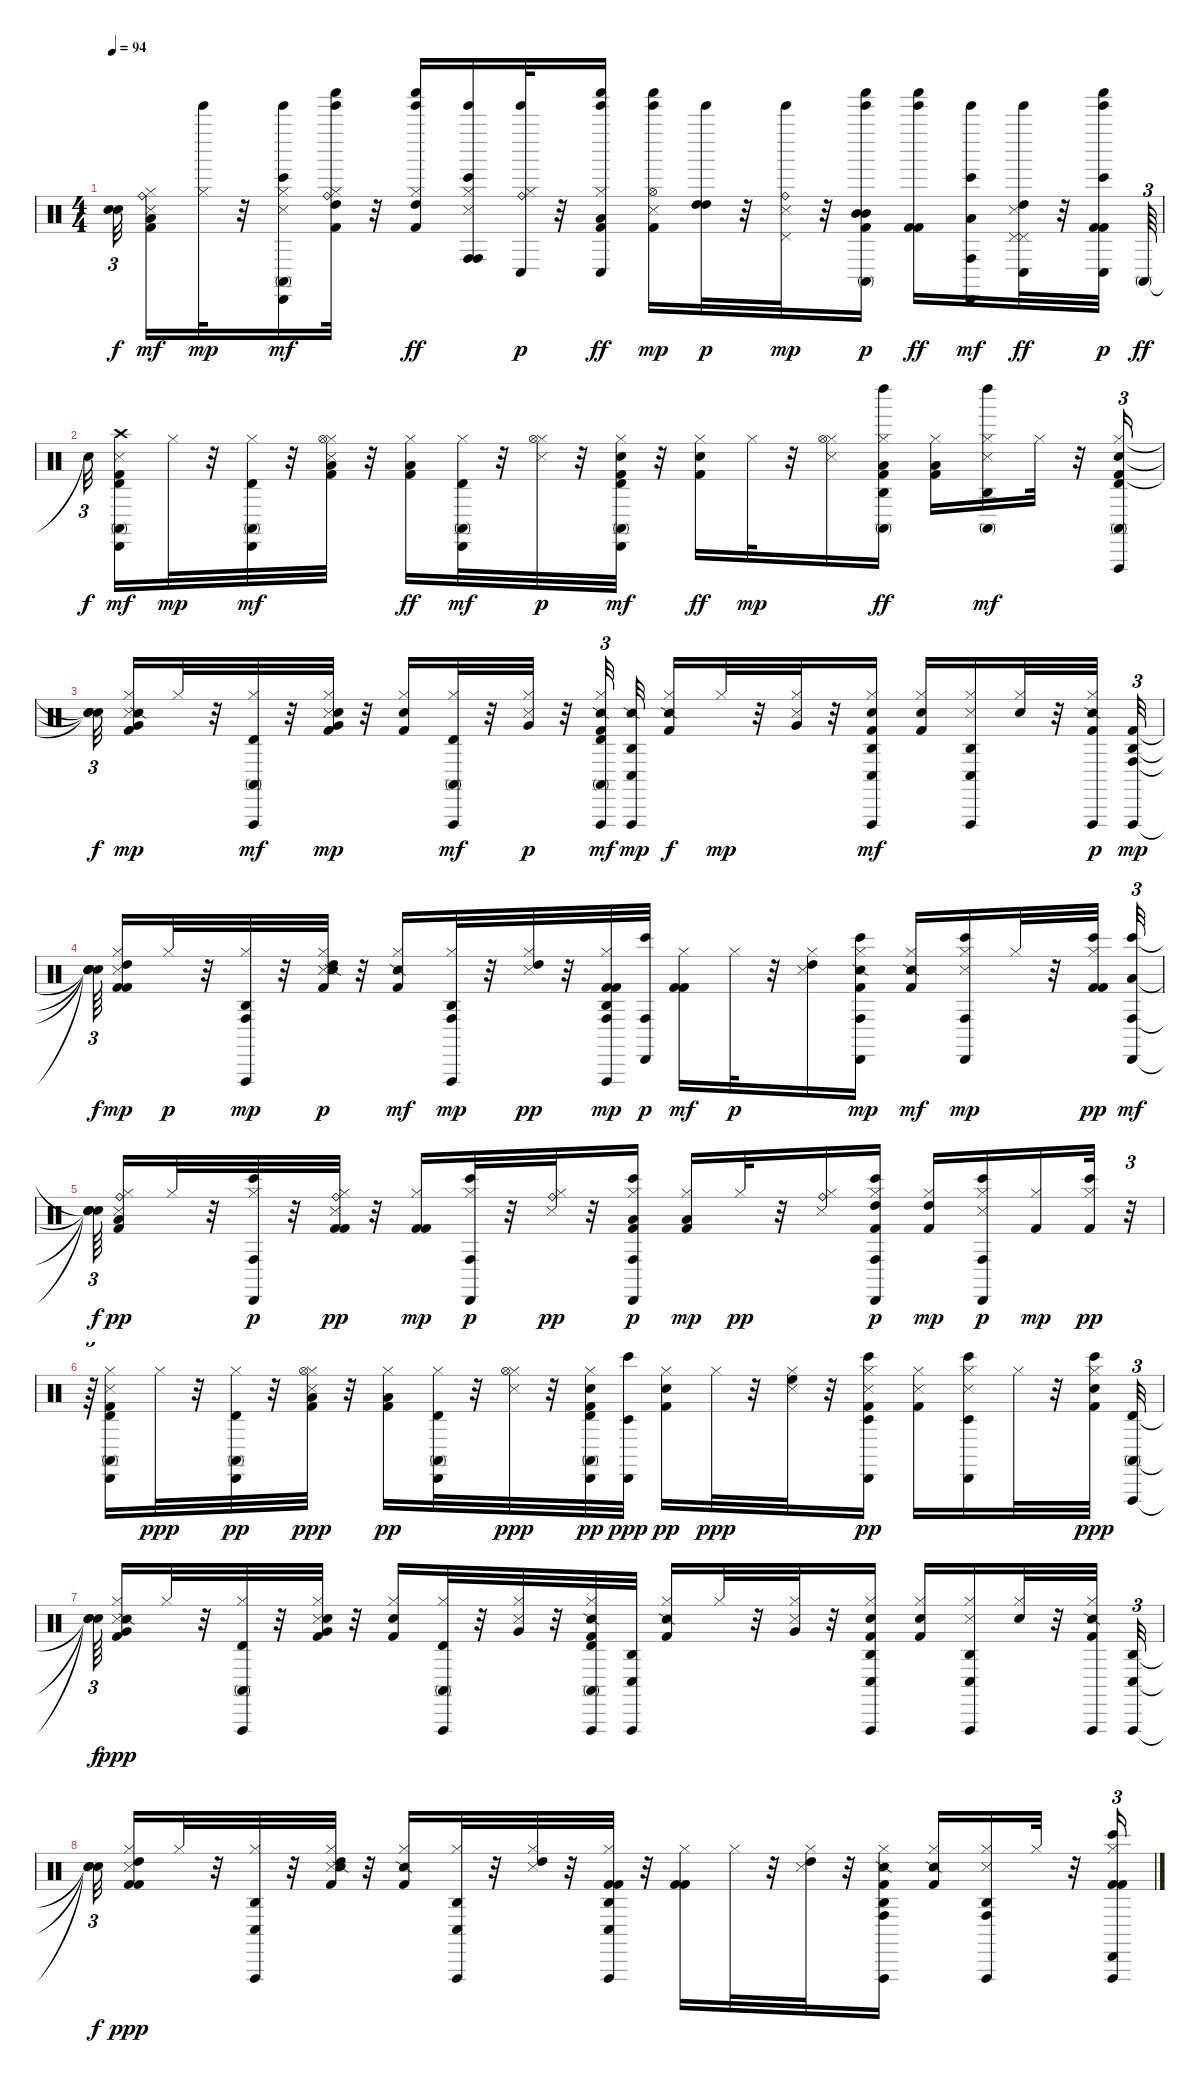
\track "" {instrument percussion}
\staff {score}
\articulation defaults
\ts (4 4)
\tempo 94
\clef neutral
\ks c
("Snare (hit)"{t} "Snare (hit)"{t}).32{tu (3 2) dy f beam splitsecondary} ("Kick (hit) 2" "Snare (side stick) 3" "Hi-Hat (closed)" "Low Floor Tom (hit)" "Ride (bell)").16{dy mf} ("Tinkle Bell (hit)" "Hi-Hat (closed)").32{dy mp} r.32 ("Tinkle Bell (hit)" "Conga high (mute)" "Snare (side stick) 3" "Hi-Hat (closed)" "Bongo High (hit)" "Cabasa (hit)").16{dy mf} ("Kick (hit) 2" "Hi-Hat (closed)" "Tinkle Bell (hit)" "Shaker (hit)" "High Tom (hit)" "Ride (bell)").32 r.32 ("Kick (hit) 2" "Hi-Hat (closed)" "Tinkle Bell (hit)" "Shaker (hit)" "High Tom (hit)").16{dy ff} ("Tinkle Bell (hit)" "Conga high (hit)" "Snare (side stick) 3" "Hi-Hat (closed)" "Bongo High (hit)" "Conga high (hit)").16 ("Tinkle Bell (hit)" "Conga low (hit)" "Hi-Hat (closed)" "Ride (bell)").32{dy p} r.32 ("Kick (hit) 2" "Conga low (hit)" "Hi-Hat (closed)" "Tinkle Bell (hit)" "Shaker (hit)" "Low Floor Tom (hit)").16{dy ff} ("Kick (hit) 2" "Snare (side stick) 3" "Tinkle Bell (hit)" "Shaker (hit)" "Hi-Hat (open)").16{dy mp} ("Tinkle Bell (hit)" "High Tom (hit)" "High Tom (hit)").32{dy p} r.32 ("Tinkle Bell (hit)" "Pedal Hi-Hat (hit)" "Snare (side stick) 3" "Ride (bell)").32{dy mp} r.32 ("Conga high (mute)" "Kick (hit) 2" "Tinkle Bell (hit)" "Shaker (hit)" "Mid Tom (hit)" "Mid Tom (hit)").16{dy p} ("Kick (hit) 2" "Tinkle Bell (hit)" "Shaker (hit)" "Kick (hit) 2").16{dy ff} ("Tinkle Bell (hit)" "Low Tom (hit)" "Cabasa (hit)" "Bongo High (hit)" "Conga high (hit)").16{dy mf} ("Tinkle Bell (hit)" "Conga low (hit)" "Pedal Hi-Hat (hit)" "Snare (side stick) 3" "Pedal Hi-Hat (hit)" "High Tom (hit)").32{dy ff} r.32 ("Kick (hit) 2" "Tinkle Bell (hit)" "Shaker (hit)" "Conga low (hit)" "Kick (hit) 2" "Bongo High (hit)").32{dy p volume 7} "Conga high (mute)".64{tu (3 2) dy ff volume 6} |
"Snare (hit)"{t}.32{tu (3 2) dy f beam splitsecondary} ("Conga high (mute)" "Cabasa (hit)" "Timbale high (hit)" "Crash high (hit)" "Kick (hit) 2" "Snare (side stick) 3").16{dy mf} "Hi-Hat (closed)".32{dy mp} r.32 ("Hi-Hat (closed)" "Conga high (mute)" "Cabasa (hit)" "Timbale high (hit)").32{dy mf} r.32 ("Kick (hit) 2" "Snare (side stick) 3" "Hi-Hat (closed)" "Low Floor Tom (hit)" "Hi-Hat (open)").32 r.32 ("Kick (hit) 2" "Hi-Hat (closed)" "Low Floor Tom (hit)").16{dy ff} ("Hi-Hat (closed)" "Conga high (mute)" "Timbale high (hit)" "Cabasa (hit)").32{dy mf} r.32 ("Snare (side stick) 3" "Hi-Hat (closed)" "Hi-Hat (open)").32{dy p} r.32 ("Kick (hit) 2" "Hi-Hat (closed)" "Metronome (bell)" "Cabasa (hit)" "Conga high (mute)" "Timbale high (hit)").32{dy mf} r.32 ("Kick (hit) 2" "Hi-Hat (closed)" "Metronome (bell)").16{dy ff} "Hi-Hat (closed)".32{dy mp} r.32 ("Snare (side stick) 3" "Hi-Hat (closed)" "Hi-Hat (open)").16 ("Kick (hit) 2" "Hi-Hat (closed)" "Low Floor Tom (hit)" "Agogo high (hit)" "Conga high (mute)" "Left Maraca (hit)").16{dy ff} ("Kick (hit) 2" "Hi-Hat (closed)" "Low Floor Tom (hit)").16 ("Snare (side stick) 3" "Hi-Hat (closed)" "Left Maraca (hit)" "Conga high (mute)" "Agogo high (hit)").16{dy mf} "Hi-Hat (closed)".32 r.32 ("Kick (hit) 2" "Hi-Hat (closed)" "Metronome (bell)" "Conga high (mute)" "Vibraslap (hit)" "Timbale high (hit)").16{tu (3 2) volume 7} |
("Snare (hit)"{t} "Snare (hit)"{t} "Snare (hit)"{t}).32{tu (3 2) dy f beam splitsecondary} ("Kick (hit) 2" "Snare (side stick) 3" "Hi-Hat (closed)" "Snare (side stick) 2" "Very Low Tom (hit)").16{dy mp} "Hi-Hat (closed)".32 r.32 ("Hi-Hat (closed)" "Vibraslap (hit)" "Timbale high (hit)" "Conga high (mute)").32{dy mf} r.32 ("Kick (hit) 2" "Snare (side stick) 3" "Hi-Hat (closed)" "Snare (hit) 2" "Very Low Tom (hit)").32{dy mp} r.32 ("Kick (hit) 2" "Hi-Hat (closed)" "Snare (hit) 2").16 ("Hi-Hat (closed)" "Vibraslap (hit)" "Conga high (mute)" "Timbale high (hit)").32{dy mf} r.32 ("Snare (side stick) 3" "Hi-Hat (closed)" "Very Low Tom (hit)").32{dy p} r.32 ("Kick (hit) 2" "Hi-Hat (closed)" "Snare (side stick) 2" "Timbale high (hit)" "Vibraslap (hit)" "Conga high (mute)").32{tu (3 2) dy mf volume 7} ("Vibraslap (hit)" "Agogo high (hit)" "Conga low (hit)" "Snare (side stick) 2").32{dy mp volume 6} ("Kick (hit) 2" "Hi-Hat (closed)" "Snare (side stick) 2").16{dy f} "Hi-Hat (closed)".32{dy mp} r.32 ("Snare (side stick) 3" "Hi-Hat (closed)" "Very Low Tom (hit)").32 r.32 ("Kick (hit) 2" "Hi-Hat (closed)" "Snare (hit) 2" "Conga low (hit)" "Vibraslap (hit)" "Agogo high (hit)").16{dy mf} ("Kick (hit) 2" "Hi-Hat (closed)" "Snare (hit) 2").16 ("Snare (side stick) 3" "Hi-Hat (closed)" "Agogo high (hit)" "Vibraslap (hit)" "Conga low (hit)").16 ("Hi-Hat (closed)" "Snare (hit) 2").32 r.32 ("Kick (hit) 2" "Hi-Hat (closed)" "Snare (side stick) 2" "Vibraslap (hit)").32{dy p} ("Vibraslap (hit)" "Agogo high (hit)" "Conga high (hit)" "Kick (hit) 2").32{tu (3 2) dy mp volume 6} |
("Snare (hit)"{t} "Snare (hit)"{t} "Snare (hit)"{t} "Snare (hit)"{t}).64{tu (3 2) dy f beam splitsecondary} ("Kick (hit) 2" "Snare (side stick) 3" "Hi-Hat (closed)" "Kick (hit) 2" "High Tom (hit)").16{dy mp} "Hi-Hat (closed)".32{dy p} r.32 ("Hi-Hat (closed)" "Vibraslap (hit)" "Agogo high (hit)" "Conga high (hit)").32{dy mp} r.32 ("Kick (hit) 2" "Snare (side stick) 3" "Hi-Hat (closed)" "Snare (side stick) 2" "High Tom (hit)").32{dy p} r.32 ("Kick (hit) 2" "Hi-Hat (closed)" "Snare (side stick) 2").16{dy mf} ("Hi-Hat (closed)" "Vibraslap (hit)" "Conga high (hit)" "Agogo high (hit)").32{dy mp} r.32 ("Snare (side stick) 3" "Hi-Hat (closed)" "High Tom (hit)").32{dy pp} r.32 ("Kick (hit) 2" "Hi-Hat (closed)" "Kick (hit) 2" "Agogo high (hit)" "Vibraslap (hit)" "Conga high (hit)").32{dy mp volume 7} ("Bongo High (hit)" "Cabasa (hit)" "Conga high (hit)").32{dy p volume 6} ("Kick (hit) 2" "Hi-Hat (closed)" "Kick (hit) 2").16{dy mf} "Hi-Hat (closed)".32{dy p} r.32 ("Snare (side stick) 3" "Hi-Hat (closed)" "High Tom (hit)").16 ("Kick (hit) 2" "Hi-Hat (closed)" "Snare (side stick) 2" "Conga high (hit)" "Bongo High (hit)" "Cabasa (hit)").16{dy mp} ("Kick (hit) 2" "Hi-Hat (closed)" "Snare (side stick) 2").16{dy mf} ("Snare (side stick) 3" "Hi-Hat (closed)" "Cabasa (hit)" "Bongo High (hit)" "Conga high (hit)").16{dy mp} "Hi-Hat (closed)".32 r.32 ("Kick (hit) 2" "Hi-Hat (closed)" "Kick (hit) 2" "Bongo High (hit)").32{dy pp volume 7} ("Bongo High (hit)" "Cabasa (hit)" "Conga high (hit)" "Low Floor Tom (hit)").32{tu (3 2) dy mf volume 6} |
("Snare (hit)"{t} "Snare (hit)"{t} "Snare (hit)"{t} "Snare (hit)"{t}).64{tu (3 2) dy f beam splitsecondary} ("Kick (hit) 2" "Snare (side stick) 3" "Hi-Hat (closed)" "Low Floor Tom (hit)" "Ride (bell)").16{dy pp} "Hi-Hat (closed)".32 r.32 ("Hi-Hat (closed)" "Bongo High (hit)" "Cabasa (hit)" "Conga high (hit)").32{dy p} r.32 ("Kick (hit) 2" "Snare (side stick) 3" "Hi-Hat (closed)" "Kick (hit) 2" "Ride (bell)").32{dy pp} r.32 ("Kick (hit) 2" "Hi-Hat (closed)" "Kick (hit) 2").16{dy mp} ("Hi-Hat (closed)" "Bongo High (hit)" "Conga high (hit)" "Cabasa (hit)").32{dy p} r.32 ("Snare (side stick) 3" "Hi-Hat (closed)" "Ride (bell)").32{dy pp} r.32 ("Kick (hit) 2" "Hi-Hat (closed)" "Low Floor Tom (hit)" "Cabasa (hit)" "Bongo High (hit)" "Conga high (hit)").16{dy p} ("Kick (hit) 2" "Hi-Hat (closed)" "Low Floor Tom (hit)").16{dy mp} "Hi-Hat (closed)".32{dy pp} r.32 ("Snare (side stick) 3" "Hi-Hat (closed)" "Ride (bell)").16 ("Kick (hit) 2" "Hi-Hat (closed)" "High Tom (hit)" "Conga high (hit)" "Bongo High (hit)" "Cabasa (hit)").16{dy p} ("Kick (hit) 2" "Hi-Hat (closed)" "High Tom (hit)").16{dy mp} ("Snare (side stick) 3" "Hi-Hat (closed)" "Cabasa (hit)" "Bongo High (hit)" "Conga high (hit)").16{dy p} ("Hi-Hat (closed)" "Kick (hit) 2").16{dy mp} ("Kick (hit) 2" "Hi-Hat (closed)" "Bongo High (hit)").32{dy pp} r.32{tu (3 2)} |
r.64{tu (3 2)} ("Conga high (mute)" "Cabasa (hit)" "Timbale high (hit)" "Kick (hit) 2" "Snare (side stick) 3" "Hi-Hat (closed)").16{volume 6} "Hi-Hat (closed)".32{dy ppp} r.32 ("Hi-Hat (closed)" "Conga high (mute)" "Cabasa (hit)" "Timbale high (hit)").32{dy pp} r.32 ("Kick (hit) 2" "Snare (side stick) 3" "Hi-Hat (closed)" "Low Floor Tom (hit)" "Hi-Hat (open)").32{dy ppp} r.32 ("Kick (hit) 2" "Hi-Hat (closed)" "Low Floor Tom (hit)").16{dy pp} ("Hi-Hat (closed)" "Conga high (mute)" "Timbale high (hit)" "Cabasa (hit)").32 r.32 ("Snare (side stick) 3" "Hi-Hat (closed)" "Hi-Hat (open)").32{dy ppp} r.32 ("Kick (hit) 2" "Hi-Hat (closed)" "Metronome (bell)" "Cabasa (hit)" "Conga high (mute)" "Timbale high (hit)").32{dy pp} ("Bongo High (hit)" "Cabasa (hit)" "Timbale low (hit)").32{dy ppp volume 6} ("Kick (hit) 2" "Hi-Hat (closed)" "Snare (hit) 2").16{dy pp} "Hi-Hat (closed)".32{dy ppp} r.32 ("Snare (side stick) 3" "Hi-Hat (closed)" "High Floor Tom (hit)").32 r.32 ("Kick (hit) 2" "Hi-Hat (closed)" "Metronome (hit)" "Timbale low (hit)" "Bongo High (hit)" "Cabasa (hit)").16{dy pp} ("Kick (hit) 2" "Hi-Hat (closed)" "Metronome (hit)").16 ("Snare (side stick) 3" "Hi-Hat (closed)" "Cabasa (hit)" "Bongo High (hit)" "Timbale low (hit)").16 "Hi-Hat (closed)".32 r.32 ("Kick (hit) 2" "Hi-Hat (closed)" "Snare (hit) 2" "Bongo High (hit)").32{dy ppp volume 7} ("Vibraslap (hit)" "Timbale high (hit)" "Conga high (mute)").32{tu (3 2) volume 6} |
("Snare (hit)"{t} "Snare (hit)"{t} "Snare (hit)"{t}).64{tu (3 2) dy f beam splitsecondary} ("Kick (hit) 2" "Snare (side stick) 3" "Hi-Hat (closed)" "Snare (side stick) 2" "Very Low Tom (hit)").16{dy ppp} "Hi-Hat (closed)".32 r.32 ("Hi-Hat (closed)" "Vibraslap (hit)" "Timbale high (hit)" "Conga high (mute)").32 r.32 ("Kick (hit) 2" "Snare (side stick) 3" "Hi-Hat (closed)" "Snare (hit) 2" "Very Low Tom (hit)").32 r.32 ("Kick (hit) 2" "Hi-Hat (closed)" "Snare (hit) 2").16 ("Hi-Hat (closed)" "Vibraslap (hit)" "Conga high (mute)" "Timbale high (hit)").32 r.32 ("Snare (side stick) 3" "Hi-Hat (closed)" "Very Low Tom (hit)").32 r.32 ("Kick (hit) 2" "Hi-Hat (closed)" "Snare (side stick) 2" "Timbale high (hit)" "Vibraslap (hit)" "Conga high (mute)").32{volume 7} ("Vibraslap (hit)" "Agogo high (hit)" "Conga low (hit)").32{volume 6} ("Kick (hit) 2" "Hi-Hat (closed)" "Snare (side stick) 2").16 "Hi-Hat (closed)".32 r.32 ("Snare (side stick) 3" "Hi-Hat (closed)" "Very Low Tom (hit)").32 r.32 ("Kick (hit) 2" "Hi-Hat (closed)" "Snare (hit) 2" "Conga low (hit)" "Vibraslap (hit)" "Agogo high (hit)").16 ("Kick (hit) 2" "Hi-Hat (closed)" "Snare (hit) 2").16 ("Snare (side stick) 3" "Hi-Hat (closed)" "Agogo high (hit)" "Vibraslap (hit)" "Conga low (hit)").16 ("Hi-Hat (closed)" "Snare (hit) 2").32 r.32 ("Kick (hit) 2" "Hi-Hat (closed)" "Snare (side stick) 2" "Vibraslap (hit)").32{volume 7} ("Vibraslap (hit)" "Agogo high (hit)" "Conga low (hit)").32{tu (3 2) volume 6} |
("Snare (hit)"{t} "Snare (hit)"{t} "Snare (hit)"{t}).32{tu (3 2) dy f beam splitsecondary} ("Kick (hit) 2" "Snare (side stick) 3" "Hi-Hat (closed)" "Kick (hit) 2" "High Tom (hit)").16{dy ppp} "Hi-Hat (closed)".32 r.32 ("Hi-Hat (closed)" "Vibraslap (hit)" "Agogo high (hit)" "Conga low (hit)").32 r.32 ("Kick (hit) 2" "Snare (side stick) 3" "Hi-Hat (closed)" "Snare (side stick) 2" "High Tom (hit)").32 r.32 ("Kick (hit) 2" "Hi-Hat (closed)" "Snare (side stick) 2").16 ("Hi-Hat (closed)" "Vibraslap (hit)" "Conga low (hit)" "Agogo high (hit)").32 r.32 ("Snare (side stick) 3" "Hi-Hat (closed)" "High Tom (hit)").32 r.32 ("Kick (hit) 2" "Hi-Hat (closed)" "Kick (hit) 2" "Agogo high (hit)" "Vibraslap (hit)" "Conga low (hit)").32{volume 7} r.32 ("Kick (hit) 2" "Hi-Hat (closed)" "Kick (hit) 2").16 "Hi-Hat (closed)".32 r.32 ("Snare (side stick) 3" "Hi-Hat (closed)" "High Tom (hit)").32 r.32 ("Kick (hit) 2" "Hi-Hat (closed)" "Snare (side stick) 2" "Conga high (hit)" "Vibraslap (hit)" "Agogo high (hit)").16 ("Kick (hit) 2" "Hi-Hat (closed)" "Snare (side stick) 2").16 ("Snare (side stick) 3" "Hi-Hat (closed)" "Agogo high (hit)" "Vibraslap (hit)" "Conga high (hit)").16 "Hi-Hat (closed)".32 r.32 ("Kick (hit) 2" "Hi-Hat (closed)" "Kick (hit) 2" "Vibraslap (hit)" "Bongo High (hit)" "Cabasa (hit)").16{tu (3 2)}
